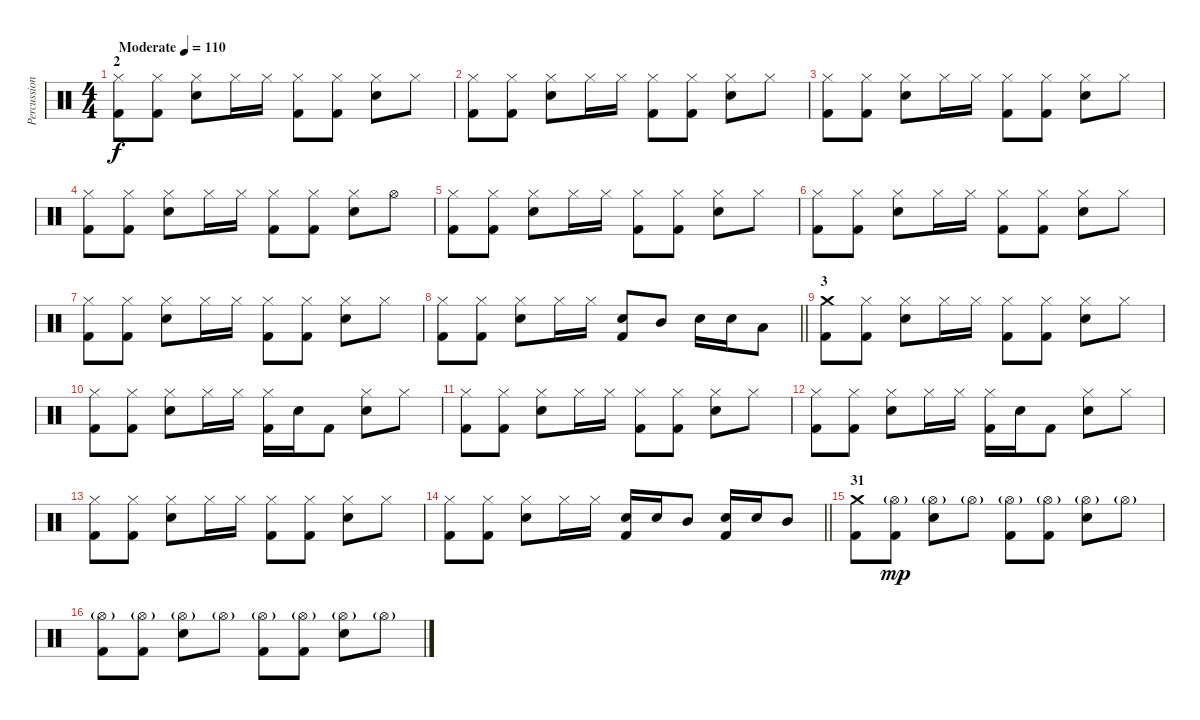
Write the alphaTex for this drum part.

\track ("Percussion" "Percussion") {instrument percussion}
\staff {score}
\articulation defaults
\ts (4 4)
\section ("" "2")
\tempo (110 "Moderate")
\clef neutral
\ks c
("Kick (hit) 2" "Hi-Hat (closed)").8{dy f} ("Kick (hit) 2" "Hi-Hat (closed)").8 ("Electric Snare (hit)" "Hi-Hat (closed)").8 "Hi-Hat (closed)".16 "Hi-Hat (closed)".16 ("Kick (hit) 2" "Hi-Hat (closed)").8 ("Kick (hit) 2" "Hi-Hat (closed)").8 ("Electric Snare (hit)" "Hi-Hat (closed)").8 "Hi-Hat (closed)".8 |
("Kick (hit) 2" "Hi-Hat (closed)").8 ("Kick (hit) 2" "Hi-Hat (closed)").8 ("Electric Snare (hit)" "Hi-Hat (closed)").8 "Hi-Hat (closed)".16 "Hi-Hat (closed)".16 ("Kick (hit) 2" "Hi-Hat (closed)").8 ("Kick (hit) 2" "Hi-Hat (closed)").8 ("Electric Snare (hit)" "Hi-Hat (closed)").8 "Hi-Hat (closed)".8 |
("Kick (hit) 2" "Hi-Hat (closed)").8 ("Kick (hit) 2" "Hi-Hat (closed)").8 ("Electric Snare (hit)" "Hi-Hat (closed)").8 "Hi-Hat (closed)".16 "Hi-Hat (closed)".16 ("Kick (hit) 2" "Hi-Hat (closed)").8 ("Kick (hit) 2" "Hi-Hat (closed)").8 ("Electric Snare (hit)" "Hi-Hat (closed)").8 "Hi-Hat (closed)".8 |
("Kick (hit) 2" "Hi-Hat (closed)").8 ("Kick (hit) 2" "Hi-Hat (closed)").8 ("Electric Snare (hit)" "Hi-Hat (closed)").8 "Hi-Hat (closed)".16 "Hi-Hat (closed)".16 ("Kick (hit) 2" "Hi-Hat (closed)").8 ("Kick (hit) 2" "Hi-Hat (closed)").8 ("Electric Snare (hit)" "Hi-Hat (closed)").8 "Hi-Hat (open)".8 |
("Kick (hit) 2" "Hi-Hat (closed)").8 ("Kick (hit) 2" "Hi-Hat (closed)").8 ("Electric Snare (hit)" "Hi-Hat (closed)").8 "Hi-Hat (closed)".16 "Hi-Hat (closed)".16 ("Kick (hit) 2" "Hi-Hat (closed)").8 ("Kick (hit) 2" "Hi-Hat (closed)").8 ("Electric Snare (hit)" "Hi-Hat (closed)").8 "Hi-Hat (closed)".8 |
("Kick (hit) 2" "Hi-Hat (closed)").8 ("Kick (hit) 2" "Hi-Hat (closed)").8 ("Electric Snare (hit)" "Hi-Hat (closed)").8 "Hi-Hat (closed)".16 "Hi-Hat (closed)".16 ("Kick (hit) 2" "Hi-Hat (closed)").8 ("Kick (hit) 2" "Hi-Hat (closed)").8 ("Electric Snare (hit)" "Hi-Hat (closed)").8 "Hi-Hat (closed)".8 |
("Kick (hit) 2" "Hi-Hat (closed)").8 ("Kick (hit) 2" "Hi-Hat (closed)").8 ("Electric Snare (hit)" "Hi-Hat (closed)").8 "Hi-Hat (closed)".16 "Hi-Hat (closed)".16 ("Kick (hit) 2" "Hi-Hat (closed)").8 ("Kick (hit) 2" "Hi-Hat (closed)").8 ("Electric Snare (hit)" "Hi-Hat (closed)").8 "Hi-Hat (closed)".8 |
\barLineRight lightlight
("Kick (hit) 2" "Hi-Hat (closed)").8 ("Kick (hit) 2" "Hi-Hat (closed)").8 ("Electric Snare (hit)" "Hi-Hat (closed)").8 "Hi-Hat (closed)".16 "Hi-Hat (closed)".16 ("Kick (hit) 2" "Electric Snare (hit)").8 "Mid Tom (hit)".8 "Electric Snare (hit)".16 "Electric Snare (hit)".16 "Low Tom (hit)".8 |
\section ("" "3")
("Kick (hit) 2" "Crash medium (hit)").8 ("Kick (hit) 2" "Hi-Hat (closed)").8 ("Electric Snare (hit)" "Hi-Hat (closed)").8 "Hi-Hat (closed)".16 "Hi-Hat (closed)".16 ("Kick (hit) 2" "Hi-Hat (closed)").8 ("Kick (hit) 2" "Hi-Hat (closed)").8 ("Electric Snare (hit)" "Hi-Hat (closed)").8 "Hi-Hat (closed)".8 |
("Kick (hit) 2" "Hi-Hat (closed)").8 ("Kick (hit) 2" "Hi-Hat (closed)").8 ("Electric Snare (hit)" "Hi-Hat (closed)").8 "Hi-Hat (closed)".16 "Hi-Hat (closed)".16 ("Kick (hit) 2" "Hi-Hat (closed)").16 "Electric Snare (hit)".16 "Kick (hit) 2".8 ("Electric Snare (hit)" "Hi-Hat (closed)").8 "Hi-Hat (closed)".8 |
("Kick (hit) 2" "Hi-Hat (closed)").8 ("Kick (hit) 2" "Hi-Hat (closed)").8 ("Electric Snare (hit)" "Hi-Hat (closed)").8 "Hi-Hat (closed)".16 "Hi-Hat (closed)".16 ("Kick (hit) 2" "Hi-Hat (closed)").8 ("Kick (hit) 2" "Hi-Hat (closed)").8 ("Electric Snare (hit)" "Hi-Hat (closed)").8 "Hi-Hat (closed)".8 |
("Kick (hit) 2" "Hi-Hat (closed)").8 ("Kick (hit) 2" "Hi-Hat (closed)").8 ("Electric Snare (hit)" "Hi-Hat (closed)").8 "Hi-Hat (closed)".16 "Hi-Hat (closed)".16 ("Kick (hit) 2" "Hi-Hat (closed)").16 "Electric Snare (hit)".16 "Kick (hit) 2".8 ("Electric Snare (hit)" "Hi-Hat (closed)").8 "Hi-Hat (closed)".8 |
("Kick (hit) 2" "Hi-Hat (closed)").8 ("Kick (hit) 2" "Hi-Hat (closed)").8 ("Electric Snare (hit)" "Hi-Hat (closed)").8 "Hi-Hat (closed)".16 "Hi-Hat (closed)".16 ("Kick (hit) 2" "Hi-Hat (closed)").8 ("Kick (hit) 2" "Hi-Hat (closed)").8 ("Electric Snare (hit)" "Hi-Hat (closed)").8 "Hi-Hat (closed)".8 |
\barLineRight lightlight
("Kick (hit) 2" "Hi-Hat (closed)").8 ("Kick (hit) 2" "Hi-Hat (closed)").8 ("Electric Snare (hit)" "Hi-Hat (closed)").8 "Hi-Hat (closed)".16 "Hi-Hat (closed)".16 ("Kick (hit) 2" "Electric Snare (hit)").16 "Electric Snare (hit)".16 "Mid Tom (hit)".8 ("Electric Snare (hit)" "Kick (hit) 2").16 "Electric Snare (hit)".16 "Mid Tom (hit)".8 |
\section ("" "31")
("Kick (hit) 2" "Crash medium (hit)").8 ("Kick (hit) 2" "Hi-Hat (open)"{g}).8{dy mp} ("Electric Snare (hit)" "Hi-Hat (open)"{g}).8 "Hi-Hat (open)"{g}.8 ("Kick (hit) 2" "Hi-Hat (open)"{g}).8 ("Kick (hit) 2" "Hi-Hat (open)"{g}).8 ("Electric Snare (hit)" "Hi-Hat (open)"{g}).8 "Hi-Hat (open)"{g}.8 |
("Kick (hit) 2" "Hi-Hat (open)"{g}).8 ("Kick (hit) 2" "Hi-Hat (open)"{g}).8 ("Electric Snare (hit)" "Hi-Hat (open)"{g}).8 "Hi-Hat (open)"{g}.8 ("Kick (hit) 2" "Hi-Hat (open)"{g}).8 ("Kick (hit) 2" "Hi-Hat (open)"{g}).8 ("Electric Snare (hit)" "Hi-Hat (open)"{g}).8 "Hi-Hat (open)"{g}.8
